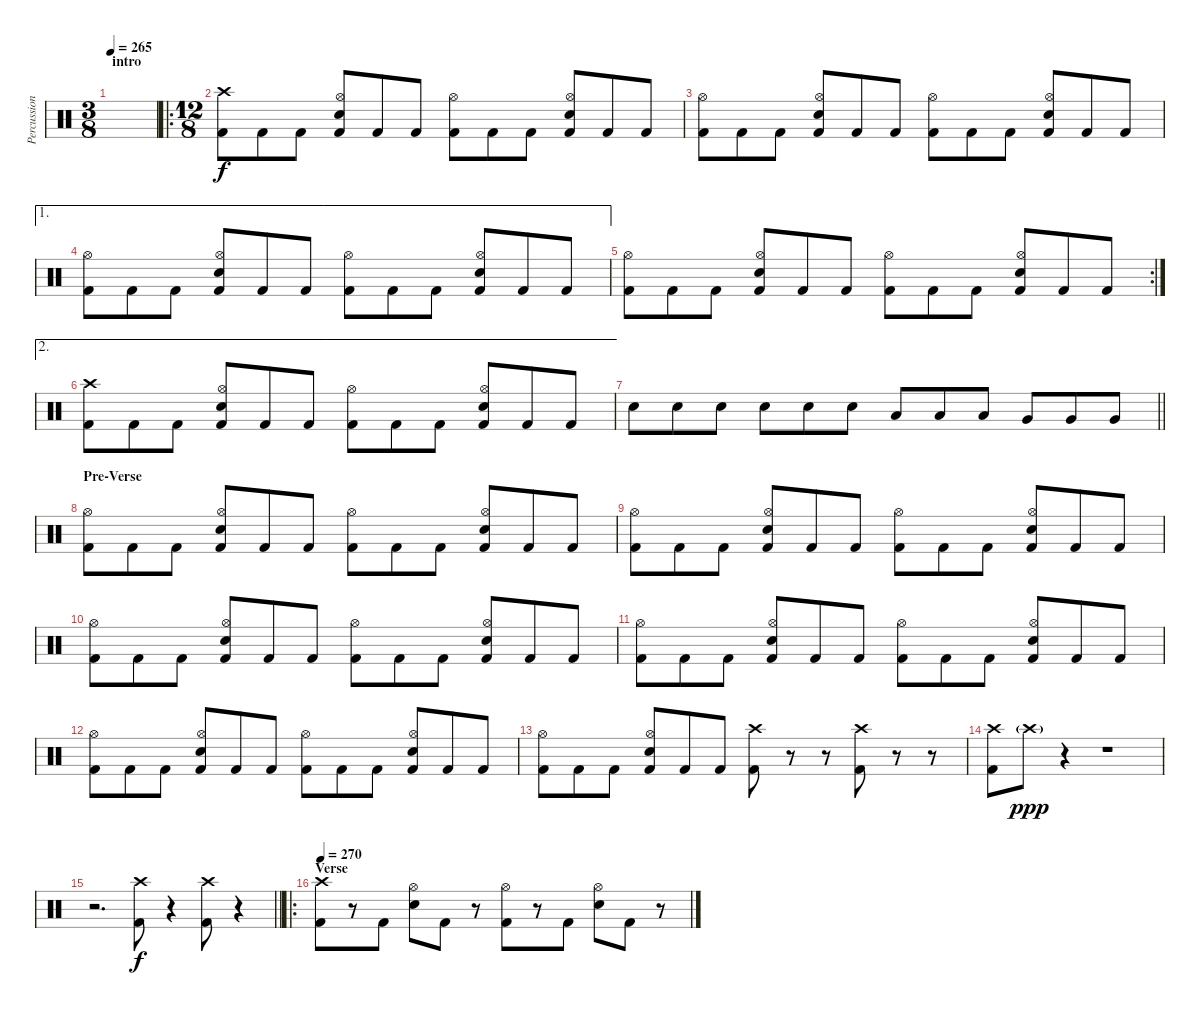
\track ("Percussions" "Percussion") {instrument percussion}
\staff {score}
\articulation defaults
\ts (3 8)
\section ("" "intro")
\tempo 265
\clef neutral
\ks c
|
\ro
\ts (12 8)
("Crash high (hit)" "Kick (hit) 2").8 "Kick (hit) 2".8 "Kick (hit) 2".8 ("Hi-Hat (open)" "Electric Snare (hit)" "Kick (hit) 2").8 "Kick (hit) 2".8 "Kick (hit) 2".8 ("Hi-Hat (open)" "Kick (hit) 2").8 "Kick (hit) 2".8 "Kick (hit) 2".8 ("Hi-Hat (open)" "Electric Snare (hit)" "Kick (hit) 2").8 "Kick (hit) 2".8 "Kick (hit) 2".8 |
("Hi-Hat (open)" "Kick (hit) 2").8 "Kick (hit) 2".8 "Kick (hit) 2".8 ("Hi-Hat (open)" "Electric Snare (hit)" "Kick (hit) 2").8 "Kick (hit) 2".8 "Kick (hit) 2".8 ("Hi-Hat (open)" "Kick (hit) 2").8 "Kick (hit) 2".8 "Kick (hit) 2".8 ("Hi-Hat (open)" "Electric Snare (hit)" "Kick (hit) 2").8 "Kick (hit) 2".8 "Kick (hit) 2".8 |
\ae 1
("Hi-Hat (open)" "Kick (hit) 2").8 "Kick (hit) 2".8 "Kick (hit) 2".8 ("Hi-Hat (open)" "Electric Snare (hit)" "Kick (hit) 2").8 "Kick (hit) 2".8 "Kick (hit) 2".8 ("Hi-Hat (open)" "Kick (hit) 2").8 "Kick (hit) 2".8 "Kick (hit) 2".8 ("Hi-Hat (open)" "Electric Snare (hit)" "Kick (hit) 2").8 "Kick (hit) 2".8 "Kick (hit) 2".8 |
\rc 2
("Hi-Hat (open)" "Kick (hit) 2").8 "Kick (hit) 2".8 "Kick (hit) 2".8 ("Hi-Hat (open)" "Electric Snare (hit)" "Kick (hit) 2").8 "Kick (hit) 2".8 "Kick (hit) 2".8 ("Hi-Hat (open)" "Kick (hit) 2").8 "Kick (hit) 2".8 "Kick (hit) 2".8 ("Hi-Hat (open)" "Electric Snare (hit)" "Kick (hit) 2").8 "Kick (hit) 2".8 "Kick (hit) 2".8 |
\ae 2
("Crash high (hit)" "Kick (hit) 2").8 "Kick (hit) 2".8 "Kick (hit) 2".8 ("Hi-Hat (open)" "Electric Snare (hit)" "Kick (hit) 2").8 "Kick (hit) 2".8 "Kick (hit) 2".8 ("Hi-Hat (open)" "Kick (hit) 2").8 "Kick (hit) 2".8 "Kick (hit) 2".8 ("Hi-Hat (open)" "Electric Snare (hit)" "Kick (hit) 2").8 "Kick (hit) 2".8 "Kick (hit) 2".8 |
\barLineRight lightlight "Electric Snare (hit)".8 "Electric Snare (hit)".8 "Electric Snare (hit)".8 "Electric Snare (hit)".8 "Electric Snare (hit)".8 "Electric Snare (hit)".8 "Low Tom (hit)".8 "Low Tom (hit)".8 "Low Tom (hit)".8 "Very Low Tom (hit)".8 "Very Low Tom (hit)".8 "Very Low Tom (hit)".8
|
\section ("" "Pre-Verse")
("Hi-Hat (open)" "Kick (hit) 2").8 "Kick (hit) 2".8 "Kick (hit) 2".8 ("Hi-Hat (open)" "Electric Snare (hit)" "Kick (hit) 2").8 "Kick (hit) 2".8 "Kick (hit) 2".8 ("Hi-Hat (open)" "Kick (hit) 2").8 "Kick (hit) 2".8 "Kick (hit) 2".8 ("Hi-Hat (open)" "Electric Snare (hit)" "Kick (hit) 2").8 "Kick (hit) 2".8 "Kick (hit) 2".8 |
("Hi-Hat (open)" "Kick (hit) 2").8 "Kick (hit) 2".8 "Kick (hit) 2".8 ("Hi-Hat (open)" "Electric Snare (hit)" "Kick (hit) 2").8 "Kick (hit) 2".8 "Kick (hit) 2".8 ("Hi-Hat (open)" "Kick (hit) 2").8 "Kick (hit) 2".8 "Kick (hit) 2".8 ("Hi-Hat (open)" "Electric Snare (hit)" "Kick (hit) 2").8 "Kick (hit) 2".8 "Kick (hit) 2".8 |
("Hi-Hat (open)" "Kick (hit) 2").8 "Kick (hit) 2".8 "Kick (hit) 2".8 ("Hi-Hat (open)" "Electric Snare (hit)" "Kick (hit) 2").8 "Kick (hit) 2".8 "Kick (hit) 2".8 ("Hi-Hat (open)" "Kick (hit) 2").8 "Kick (hit) 2".8 "Kick (hit) 2".8 ("Hi-Hat (open)" "Electric Snare (hit)" "Kick (hit) 2").8 "Kick (hit) 2".8 "Kick (hit) 2".8 |
("Hi-Hat (open)" "Kick (hit) 2").8 "Kick (hit) 2".8 "Kick (hit) 2".8 ("Hi-Hat (open)" "Electric Snare (hit)" "Kick (hit) 2").8 "Kick (hit) 2".8 "Kick (hit) 2".8 ("Hi-Hat (open)" "Kick (hit) 2").8 "Kick (hit) 2".8 "Kick (hit) 2".8 ("Hi-Hat (open)" "Electric Snare (hit)" "Kick (hit) 2").8 "Kick (hit) 2".8 "Kick (hit) 2".8 |
("Hi-Hat (open)" "Kick (hit) 2").8 "Kick (hit) 2".8 "Kick (hit) 2".8 ("Hi-Hat (open)" "Electric Snare (hit)" "Kick (hit) 2").8 "Kick (hit) 2".8 "Kick (hit) 2".8 ("Hi-Hat (open)" "Kick (hit) 2").8 "Kick (hit) 2".8 "Kick (hit) 2".8 ("Hi-Hat (open)" "Electric Snare (hit)" "Kick (hit) 2").8 "Kick (hit) 2".8 "Kick (hit) 2".8 |
("Hi-Hat (open)" "Kick (hit) 2").8 "Kick (hit) 2".8 "Kick (hit) 2".8 ("Hi-Hat (open)" "Electric Snare (hit)" "Kick (hit) 2").8 "Kick (hit) 2".8 "Kick (hit) 2".8 ("Crash high (hit)" "Kick (hit) 2").8 r.8 r.8 ("Crash high (hit)" "Kick (hit) 2").8 r.8 r.8 |
("Crash high (hit)" "Kick (hit) 2").8 "Crash high (hit)"{g}.8{dy ppp} r.4 r.1 |
\barLineRight lightlight
r.2{d} ("Crash high (hit)" "Kick (hit) 2").8{dy f} r.4 ("Crash high (hit)" "Kick (hit) 2").8 r.4 |
\ro
\section ("" "Verse")
\tempo 270
("Crash high (hit)" "Kick (hit) 2").8 r.8 "Kick (hit) 2".8 ("Hi-Hat (open)" "Electric Snare (hit)").8 "Kick (hit) 2".8 r.8 ("Hi-Hat (open)" "Kick (hit) 2").8 r.8 "Kick (hit) 2".8 ("Hi-Hat (open)" "Electric Snare (hit)").8 "Kick (hit) 2".8 r.8
